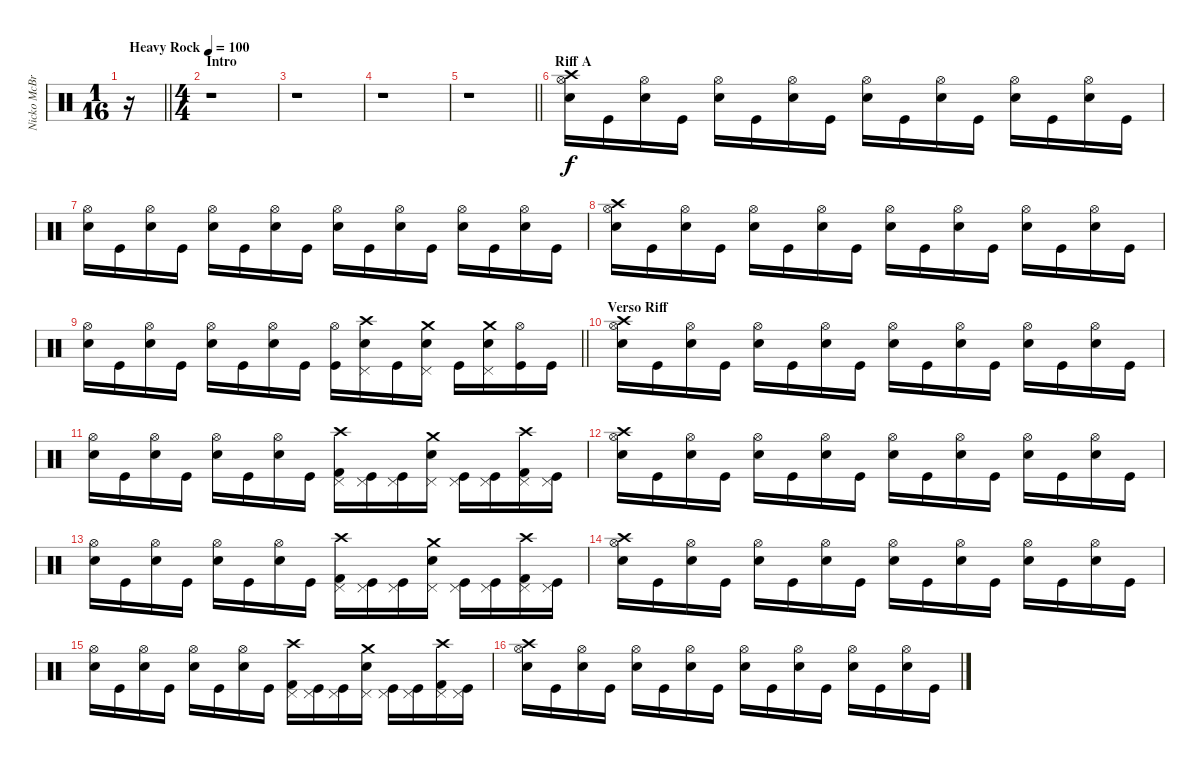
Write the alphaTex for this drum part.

\track ("Nicko McBrain" "Nicko McBr") {instrument percussion}
\staff {score}
\articulation defaults
\ts (1 16)
\tempo (100 "Heavy Rock")
\clef neutral
\barLineRight lightlight
\ks c
r.16{dy f} |
\ts (4 4)
\section ("" "Intro")
r.1 |
r.1 |
r.1 |
\barLineRight lightlight
r.1 |
\section ("" "Riff A")
("Snare (hit) 2" "Hi-Hat (open)" "Crash high (hit)").16 "Kick (hit)".16 ("Snare (hit) 2" "Hi-Hat (open)").16 "Kick (hit)".16 ("Snare (hit) 2" "Hi-Hat (open)").16 "Kick (hit)".16 ("Snare (hit) 2" "Hi-Hat (open)").16 "Kick (hit)".16 ("Snare (hit) 2" "Hi-Hat (open)").16 "Kick (hit)".16 ("Snare (hit) 2" "Hi-Hat (open)").16 "Kick (hit)".16 ("Snare (hit) 2" "Hi-Hat (open)").16 "Kick (hit)".16 ("Snare (hit) 2" "Hi-Hat (open)").16 "Kick (hit)".16 |
("Snare (hit) 2" "Hi-Hat (open)").16 "Kick (hit)".16 ("Snare (hit) 2" "Hi-Hat (open)").16 "Kick (hit)".16 ("Snare (hit) 2" "Hi-Hat (open)").16 "Kick (hit)".16 ("Snare (hit) 2" "Hi-Hat (open)").16 "Kick (hit)".16 ("Snare (hit) 2" "Hi-Hat (open)").16 "Kick (hit)".16 ("Snare (hit) 2" "Hi-Hat (open)").16 "Kick (hit)".16 ("Snare (hit) 2" "Hi-Hat (open)").16 "Kick (hit)".16 ("Snare (hit) 2" "Hi-Hat (open)").16 "Kick (hit)".16 |
("Snare (hit) 2" "Hi-Hat (open)" "Crash high (hit)").16 "Kick (hit)".16 ("Snare (hit) 2" "Hi-Hat (open)").16 "Kick (hit)".16 ("Snare (hit) 2" "Hi-Hat (open)").16 "Kick (hit)".16 ("Snare (hit) 2" "Hi-Hat (open)").16 "Kick (hit)".16 ("Snare (hit) 2" "Hi-Hat (open)").16 "Kick (hit)".16 ("Snare (hit) 2" "Hi-Hat (open)").16 "Kick (hit)".16 ("Snare (hit) 2" "Hi-Hat (open)").16 "Kick (hit)".16 ("Snare (hit) 2" "Hi-Hat (open)").16 "Kick (hit)".16 |
\barLineRight lightlight
("Snare (hit) 2" "Hi-Hat (open)").16 "Kick (hit)".16 ("Snare (hit) 2" "Hi-Hat (open)").16 "Kick (hit)".16 ("Snare (hit) 2" "Hi-Hat (open)").16 "Kick (hit)".16 ("Snare (hit) 2" "Hi-Hat (open)").16 "Kick (hit)".16 ("Kick (hit)" "Hi-Hat (open)").16 ("Snare (hit) 2" "Pedal Hi-Hat (hit)" "Crash high (hit)").16 "Kick (hit)".16 ("Snare (hit) 2" "Pedal Hi-Hat (hit)" "Crash medium (hit)").16 "Kick (hit)".16 ("Snare (hit) 2" "Pedal Hi-Hat (hit)" "Crash medium (hit)").16 ("Kick (hit)" "Hi-Hat (open)").16 "Kick (hit)".16 |
\section ("" "Verso Riff")
("Snare (hit) 2" "Hi-Hat (open)" "Crash high (hit)").16 "Kick (hit)".16 ("Snare (hit) 2" "Hi-Hat (open)").16 "Kick (hit)".16 ("Snare (hit) 2" "Hi-Hat (open)").16 "Kick (hit)".16 ("Snare (hit) 2" "Hi-Hat (open)").16 "Kick (hit)".16 ("Snare (hit) 2" "Hi-Hat (open)").16 "Kick (hit)".16 ("Snare (hit) 2" "Hi-Hat (open)").16 "Kick (hit)".16 ("Snare (hit) 2" "Hi-Hat (open)").16 "Kick (hit)".16 ("Snare (hit) 2" "Hi-Hat (open)").16 "Kick (hit)".16 |
("Snare (hit) 2" "Hi-Hat (open)").16 "Kick (hit)".16 ("Snare (hit) 2" "Hi-Hat (open)").16 "Kick (hit)".16 ("Snare (hit) 2" "Hi-Hat (open)").16 "Kick (hit)".16 ("Snare (hit) 2" "Hi-Hat (open)").16 "Kick (hit)".16 ("Kick (hit) 2" "Pedal Hi-Hat (hit)" "Crash high (hit)").16 ("Kick (hit)" "Pedal Hi-Hat (hit)").16 ("Kick (hit)" "Pedal Hi-Hat (hit)").16 ("Snare (hit) 2" "Pedal Hi-Hat (hit)" "Crash medium (hit)").16 ("Kick (hit)" "Pedal Hi-Hat (hit)").16 ("Kick (hit)" "Pedal Hi-Hat (hit)").16 ("Kick (hit) 2" "Pedal Hi-Hat (hit)" "Crash high (hit)").16 ("Kick (hit)" "Pedal Hi-Hat (hit)").16 |
("Snare (hit) 2" "Hi-Hat (open)" "Crash high (hit)").16 "Kick (hit)".16 ("Snare (hit) 2" "Hi-Hat (open)").16 "Kick (hit)".16 ("Snare (hit) 2" "Hi-Hat (open)").16 "Kick (hit)".16 ("Snare (hit) 2" "Hi-Hat (open)").16 "Kick (hit)".16 ("Snare (hit) 2" "Hi-Hat (open)").16 "Kick (hit)".16 ("Snare (hit) 2" "Hi-Hat (open)").16 "Kick (hit)".16 ("Snare (hit) 2" "Hi-Hat (open)").16 "Kick (hit)".16 ("Snare (hit) 2" "Hi-Hat (open)").16 "Kick (hit)".16 |
("Snare (hit) 2" "Hi-Hat (open)").16 "Kick (hit)".16 ("Snare (hit) 2" "Hi-Hat (open)").16 "Kick (hit)".16 ("Snare (hit) 2" "Hi-Hat (open)").16 "Kick (hit)".16 ("Snare (hit) 2" "Hi-Hat (open)").16 "Kick (hit)".16 ("Kick (hit) 2" "Pedal Hi-Hat (hit)" "Crash high (hit)").16 ("Kick (hit)" "Pedal Hi-Hat (hit)").16 ("Kick (hit)" "Pedal Hi-Hat (hit)").16 ("Snare (hit) 2" "Pedal Hi-Hat (hit)" "Crash medium (hit)").16 ("Kick (hit)" "Pedal Hi-Hat (hit)").16 ("Kick (hit)" "Pedal Hi-Hat (hit)").16 ("Kick (hit) 2" "Pedal Hi-Hat (hit)" "Crash high (hit)").16 ("Kick (hit)" "Pedal Hi-Hat (hit)").16 |
("Snare (hit) 2" "Hi-Hat (open)" "Crash high (hit)").16 "Kick (hit)".16 ("Snare (hit) 2" "Hi-Hat (open)").16 "Kick (hit)".16 ("Snare (hit) 2" "Hi-Hat (open)").16 "Kick (hit)".16 ("Snare (hit) 2" "Hi-Hat (open)").16 "Kick (hit)".16 ("Snare (hit) 2" "Hi-Hat (open)").16 "Kick (hit)".16 ("Snare (hit) 2" "Hi-Hat (open)").16 "Kick (hit)".16 ("Snare (hit) 2" "Hi-Hat (open)").16 "Kick (hit)".16 ("Snare (hit) 2" "Hi-Hat (open)").16 "Kick (hit)".16 |
("Snare (hit) 2" "Hi-Hat (open)").16 "Kick (hit)".16 ("Snare (hit) 2" "Hi-Hat (open)").16 "Kick (hit)".16 ("Snare (hit) 2" "Hi-Hat (open)").16 "Kick (hit)".16 ("Snare (hit) 2" "Hi-Hat (open)").16 "Kick (hit)".16 ("Kick (hit) 2" "Pedal Hi-Hat (hit)" "Crash high (hit)").16 ("Kick (hit)" "Pedal Hi-Hat (hit)").16 ("Kick (hit)" "Pedal Hi-Hat (hit)").16 ("Snare (hit) 2" "Pedal Hi-Hat (hit)" "Crash medium (hit)").16 ("Kick (hit)" "Pedal Hi-Hat (hit)").16 ("Kick (hit)" "Pedal Hi-Hat (hit)").16 ("Kick (hit) 2" "Pedal Hi-Hat (hit)" "Crash high (hit)").16 ("Kick (hit)" "Pedal Hi-Hat (hit)").16 |
("Snare (hit) 2" "Hi-Hat (open)" "Crash high (hit)").16 "Kick (hit)".16 ("Snare (hit) 2" "Hi-Hat (open)").16 "Kick (hit)".16 ("Snare (hit) 2" "Hi-Hat (open)").16 "Kick (hit)".16 ("Snare (hit) 2" "Hi-Hat (open)").16 "Kick (hit)".16 ("Snare (hit) 2" "Hi-Hat (open)").16 "Kick (hit)".16 ("Snare (hit) 2" "Hi-Hat (open)").16 "Kick (hit)".16 ("Snare (hit) 2" "Hi-Hat (open)").16 "Kick (hit)".16 ("Snare (hit) 2" "Hi-Hat (open)").16 "Kick (hit)".16
